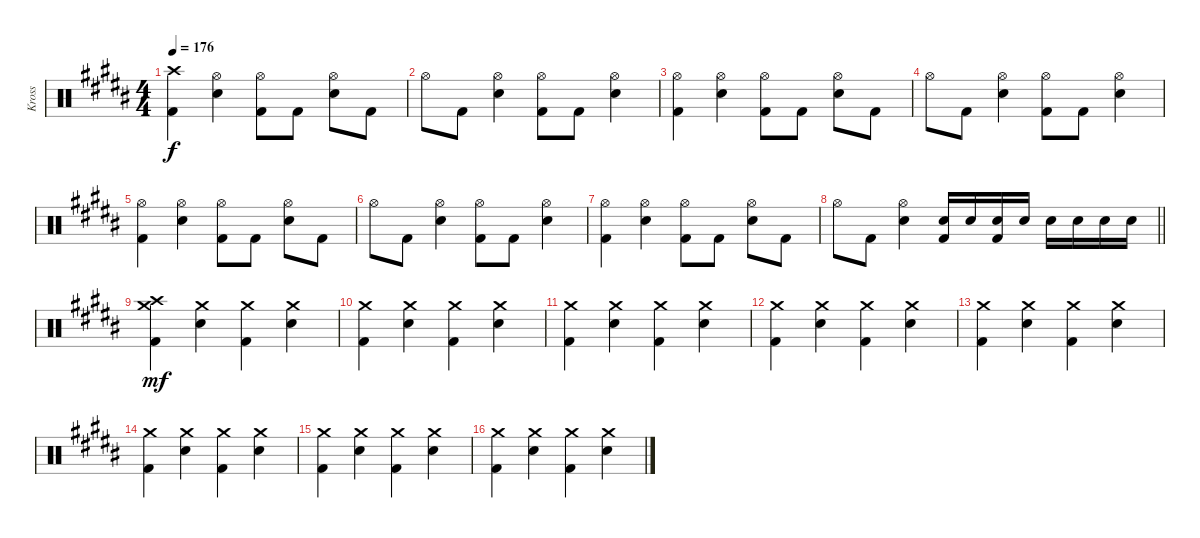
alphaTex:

\track ("Kross" "Kross") {instrument percussion}
\staff {score}
\articulation defaults
\ts (4 4)
\tempo 176
\clef neutral
\ks b
("Crash high (hit)" "Kick (hit) 2").4{dy f} ("Hi-Hat (open)" "Electric Snare (hit)").4 ("Hi-Hat (open)" "Kick (hit) 2").8 "Kick (hit) 2".8 ("Hi-Hat (open)" "Electric Snare (hit)").8 "Kick (hit) 2".8 |
"Hi-Hat (open)".8 "Kick (hit) 2".8 ("Hi-Hat (open)" "Electric Snare (hit)").4 ("Hi-Hat (open)" "Kick (hit) 2").8 "Kick (hit) 2".8 ("Hi-Hat (open)" "Electric Snare (hit)").4 |
("Hi-Hat (open)" "Kick (hit) 2").4 ("Hi-Hat (open)" "Electric Snare (hit)").4 ("Hi-Hat (open)" "Kick (hit) 2").8 "Kick (hit) 2".8 ("Hi-Hat (open)" "Electric Snare (hit)").8 "Kick (hit) 2".8 |
"Hi-Hat (open)".8 "Kick (hit) 2".8 ("Hi-Hat (open)" "Electric Snare (hit)").4 ("Hi-Hat (open)" "Kick (hit) 2").8 "Kick (hit) 2".8 ("Hi-Hat (open)" "Electric Snare (hit)").4 |
("Hi-Hat (open)" "Kick (hit) 2").4 ("Hi-Hat (open)" "Electric Snare (hit)").4 ("Hi-Hat (open)" "Kick (hit) 2").8 "Kick (hit) 2".8 ("Hi-Hat (open)" "Electric Snare (hit)").8 "Kick (hit) 2".8 |
"Hi-Hat (open)".8 "Kick (hit) 2".8 ("Hi-Hat (open)" "Electric Snare (hit)").4 ("Hi-Hat (open)" "Kick (hit) 2").8 "Kick (hit) 2".8 ("Hi-Hat (open)" "Electric Snare (hit)").4 |
("Hi-Hat (open)" "Kick (hit) 2").4 ("Hi-Hat (open)" "Electric Snare (hit)").4 ("Hi-Hat (open)" "Kick (hit) 2").8 "Kick (hit) 2".8 ("Hi-Hat (open)" "Electric Snare (hit)").8 "Kick (hit) 2".8 |
\barLineRight lightlight "Hi-Hat (open)".8 "Kick (hit) 2".8
("Hi-Hat (open)" "Electric Snare (hit)").4 ("Electric Snare (hit)" "Kick (hit) 2").16 "Electric Snare (hit)".16 ("Electric Snare (hit)" "Kick (hit) 2").16 "Electric Snare (hit)".16 "Electric Snare (hit)".16 "Electric Snare (hit)".16 "Electric Snare (hit)".16 "Electric Snare (hit)".16 |
("Crash high (hit)" "Crash medium (hit)" "Kick (hit) 2").4{dy mf} ("Crash medium (hit)" "Snare (hit) 2").4 ("Crash medium (hit)" "Kick (hit) 2").4 ("Crash medium (hit)" "Snare (hit) 2").4 |
("Crash medium (hit)" "Kick (hit) 2").4 ("Crash medium (hit)" "Snare (hit) 2").4 ("Crash medium (hit)" "Kick (hit) 2").4 ("Crash medium (hit)" "Snare (hit) 2").4 |
("Crash medium (hit)" "Kick (hit) 2").4 ("Crash medium (hit)" "Snare (hit) 2").4 ("Crash medium (hit)" "Kick (hit) 2").4 ("Crash medium (hit)" "Snare (hit) 2").4 |
("Crash medium (hit)" "Kick (hit) 2").4 ("Crash medium (hit)" "Snare (hit) 2").4 ("Crash medium (hit)" "Kick (hit) 2").4 ("Crash medium (hit)" "Snare (hit) 2").4 |
("Crash medium (hit)" "Kick (hit) 2").4 ("Crash medium (hit)" "Snare (hit) 2").4 ("Crash medium (hit)" "Kick (hit) 2").4 ("Crash medium (hit)" "Snare (hit) 2").4 |
("Crash medium (hit)" "Kick (hit) 2").4 ("Crash medium (hit)" "Snare (hit) 2").4 ("Crash medium (hit)" "Kick (hit) 2").4 ("Crash medium (hit)" "Snare (hit) 2").4 |
("Crash medium (hit)" "Kick (hit) 2").4 ("Crash medium (hit)" "Snare (hit) 2").4 ("Crash medium (hit)" "Kick (hit) 2").4 ("Crash medium (hit)" "Snare (hit) 2").4 |
("Crash medium (hit)" "Kick (hit) 2").4 ("Crash medium (hit)" "Snare (hit) 2").4 ("Crash medium (hit)" "Kick (hit) 2").4 ("Crash medium (hit)" "Snare (hit) 2").4
